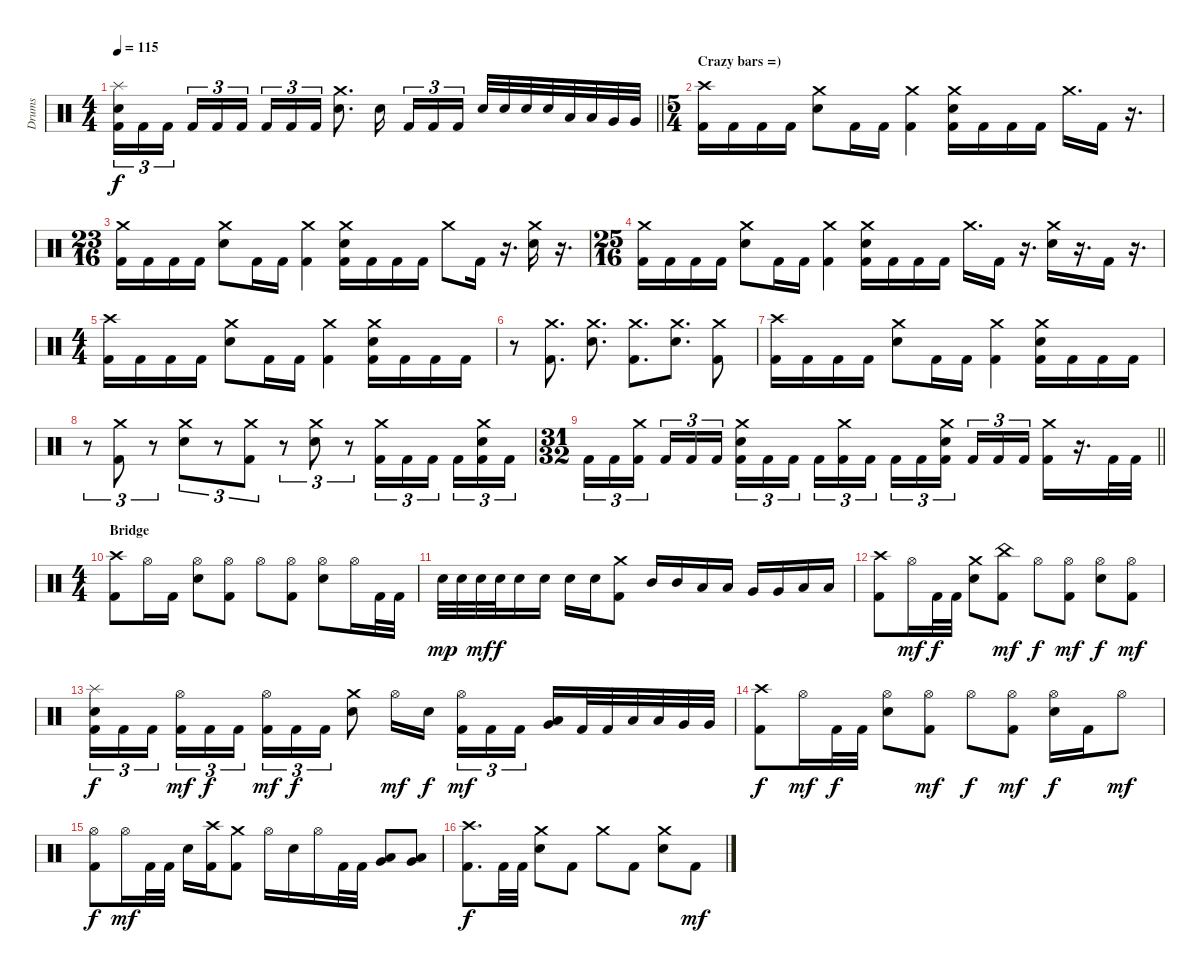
\track ("Drums" "Drums") {instrument percussion}
\staff {score}
\articulation defaults
\ts (4 4)
\tempo 115
\clef neutral
\barLineRight lightlight
\ks c
("Splash (hit)" "Electric Snare (hit)" "Kick (hit) 2").16{tu (3 2) dy f} "Kick (hit) 2".16{tu (3 2)} "Kick (hit) 2".16{tu (3 2) beam splitsecondary} "Kick (hit) 2".16{tu (3 2)} "Kick (hit) 2".16{tu (3 2)} "Kick (hit) 2".16{tu (3 2)} "Kick (hit) 2".16{tu (3 2)} "Kick (hit) 2".16{tu (3 2)} "Kick (hit) 2".16{tu (3 2)} ("Crash medium (hit)" "Electric Snare (hit)").8{d} "Electric Snare (hit)".16{beam splitsecondary} "Kick (hit) 2".16{tu (3 2)} "Kick (hit) 2".16{tu (3 2)} "Kick (hit) 2".16{tu (3 2)} "Electric Snare (hit)".32 "Electric Snare (hit)".32 "Electric Snare (hit)".32 "Electric Snare (hit)".32 "Low Tom (hit)".32 "Low Tom (hit)".32 "Very Low Tom (hit)".32 "Very Low Tom (hit)".32 |
\ts (5 4)
\section ("" "Crazy bars =)")
("Crash high (hit)" "Kick (hit) 2").16 "Kick (hit) 2".16 "Kick (hit) 2".16 "Kick (hit) 2".16 ("Crash medium (hit)" "Electric Snare (hit)").8 "Kick (hit) 2".16 "Kick (hit) 2".16 ("Crash medium (hit)" "Kick (hit) 2").4 ("Crash medium (hit)" "Electric Snare (hit)" "Kick (hit) 2").16 "Kick (hit) 2".16 "Kick (hit) 2".16 "Kick (hit) 2".16 "Crash medium (hit)".16{d} "Kick (hit) 2".16 r.16{d} |
\ts (23 16)
("Crash medium (hit)" "Kick (hit) 2").16 "Kick (hit) 2".16 "Kick (hit) 2".16 "Kick (hit) 2".16 ("Crash medium (hit)" "Electric Snare (hit)").8 "Kick (hit) 2".16 "Kick (hit) 2".16 ("Crash medium (hit)" "Kick (hit) 2").4 ("Crash medium (hit)" "Electric Snare (hit)" "Kick (hit) 2").16 "Kick (hit) 2".16 "Kick (hit) 2".16 "Kick (hit) 2".16 "Crash medium (hit)".8 "Kick (hit) 2".16 r.16{d} ("Crash medium (hit)" "Electric Snare (hit)").16 r.16{d} |
\ts (25 16)
("Crash medium (hit)" "Kick (hit) 2").16 "Kick (hit) 2".16 "Kick (hit) 2".16 "Kick (hit) 2".16 ("Crash medium (hit)" "Electric Snare (hit)").8 "Kick (hit) 2".16 "Kick (hit) 2".16 ("Crash medium (hit)" "Kick (hit) 2").4 ("Crash medium (hit)" "Electric Snare (hit)" "Kick (hit) 2").16 "Kick (hit) 2".16 "Kick (hit) 2".16 "Kick (hit) 2".16 "Crash medium (hit)".16{d} "Kick (hit) 2".16 r.16{d} ("Crash medium (hit)" "Electric Snare (hit)").16 r.16{d} "Kick (hit) 2".16 r.16{d} |
\ts (4 4)
("Crash high (hit)" "Kick (hit) 2").16 "Kick (hit) 2".16 "Kick (hit) 2".16 "Kick (hit) 2".16 ("Crash medium (hit)" "Electric Snare (hit)").8 "Kick (hit) 2".16 "Kick (hit) 2".16 ("Crash medium (hit)" "Kick (hit) 2").4 ("Crash medium (hit)" "Electric Snare (hit)" "Kick (hit) 2").16 "Kick (hit) 2".16 "Kick (hit) 2".16 "Kick (hit) 2".16 |
r.8 ("Crash medium (hit)" "Kick (hit) 2").8{d} ("Crash medium (hit)" "Electric Snare (hit)").8{d} ("Crash medium (hit)" "Kick (hit) 2").8{d} ("Crash medium (hit)" "Electric Snare (hit)").8{d} ("Crash medium (hit)" "Kick (hit) 2").8 |
("Crash high (hit)" "Kick (hit) 2").16 "Kick (hit) 2".16 "Kick (hit) 2".16 "Kick (hit) 2".16 ("Crash medium (hit)" "Electric Snare (hit)").8 "Kick (hit) 2".16 "Kick (hit) 2".16 ("Crash medium (hit)" "Kick (hit) 2").4 ("Crash medium (hit)" "Electric Snare (hit)" "Kick (hit) 2").16 "Kick (hit) 2".16 "Kick (hit) 2".16 "Kick (hit) 2".16 |
r.8{tu (3 2)} ("Crash medium (hit)" "Kick (hit) 2").8{tu (3 2)} r.8{tu (3 2)} ("Crash medium (hit)" "Electric Snare (hit)").8{tu (3 2)} r.8{tu (3 2)} ("Crash medium (hit)" "Kick (hit) 2").8{tu (3 2)} r.8{tu (3 2)} ("Crash medium (hit)" "Electric Snare (hit)").8{tu (3 2)} r.8{tu (3 2)} ("Crash medium (hit)" "Kick (hit) 2").16{tu (3 2)} "Kick (hit) 2".16{tu (3 2)} "Kick (hit) 2".16{tu (3 2) beam splitsecondary} "Kick (hit) 2".16{tu (3 2)} ("Crash medium (hit)" "Electric Snare (hit)" "Kick (hit) 2").16{tu (3 2)} "Kick (hit) 2".16{tu (3 2)} |
\ts (31 32)
\barLineRight lightlight "Kick (hit) 2".16{tu (3 2)} "Kick (hit) 2".16{tu (3 2)}
("Crash medium (hit)" "Kick (hit) 2").16{tu (3 2)} "Kick (hit) 2".16{tu (3 2)} "Kick (hit) 2".16{tu (3 2)} "Kick (hit) 2".16{tu (3 2)} ("Crash medium (hit)" "Electric Snare (hit)" "Kick (hit) 2").16{tu (3 2)} "Kick (hit) 2".16{tu (3 2)} "Kick (hit) 2".16{tu (3 2)} "Kick (hit) 2".16{tu (3 2)} ("Crash medium (hit)" "Kick (hit) 2").16{tu (3 2)} "Kick (hit) 2".16{tu (3 2)} "Kick (hit) 2".16{tu (3 2)} "Kick (hit) 2".16{tu (3 2)} ("Crash medium (hit)" "Electric Snare (hit)" "Kick (hit) 2").16{tu (3 2)} "Kick (hit) 2".16{tu (3 2)} "Kick (hit) 2".16{tu (3 2)} "Kick (hit) 2".16{tu (3 2)} ("Crash medium (hit)" "Kick (hit) 2").16 r.16{d} "Kick (hit) 2".32 "Kick (hit) 2".32 |
\ts (4 4)
\section ("" "Bridge")
("Crash high (hit)" "Kick (hit) 2").8 "Hi-Hat (open)".16 "Kick (hit) 2".16 ("Hi-Hat (open)" "Electric Snare (hit)").8 ("Hi-Hat (open)" "Kick (hit) 2").8 "Hi-Hat (open)".8 ("Hi-Hat (open)" "Kick (hit) 2").8 ("Hi-Hat (open)" "Electric Snare (hit)").8 "Hi-Hat (open)".16 "Kick (hit) 2".32 "Kick (hit) 2".32 |
"Electric Snare (hit)".32{dy mp} "Electric Snare (hit)".32 "Electric Snare (hit)".32{dy mf} "Electric Snare (hit)".32{dy f} "Electric Snare (hit)".16 "Electric Snare (hit)".16 "Electric Snare (hit)".16 "Electric Snare (hit)".16 ("Crash medium (hit)" "Kick (hit) 2").8 "Mid Tom (hit)".16 "Mid Tom (hit)".16 "Low Tom (hit)".16 "Low Tom (hit)".16 "Very Low Tom (hit)".16 "Very Low Tom (hit)".16 "Low Floor Tom (hit)".16 "Low Floor Tom (hit)".16 |
("Crash high (hit)" "Kick (hit) 2").8 "Hi-Hat (open)".16{dy mf} "Kick (hit) 2".32{dy f} "Kick (hit) 2".32 ("Crash medium (hit)" "Electric Snare (hit)").8 ("China (hit)" "Kick (hit) 2").8{dy mf} "Hi-Hat (open)".8{dy f} ("Hi-Hat (open)" "Kick (hit) 2").8{dy mf} ("Hi-Hat (open)" "Electric Snare (hit)").8{dy f} ("Hi-Hat (open)" "Kick (hit) 2").8{dy mf} |
("Splash (hit)" "Electric Snare (hit)" "Kick (hit) 2").16{tu (3 2) dy f} "Kick (hit) 2".16{tu (3 2)} "Kick (hit) 2".16{tu (3 2) beam splitsecondary} ("Hi-Hat (open)" "Kick (hit) 2").16{tu (3 2) dy mf} "Kick (hit) 2".16{tu (3 2) dy f} "Kick (hit) 2".16{tu (3 2)} ("Hi-Hat (open)" "Kick (hit) 2").16{tu (3 2) dy mf} "Kick (hit) 2".16{tu (3 2) dy f} "Kick (hit) 2".16{tu (3 2)} ("Crash medium (hit)" "Electric Snare (hit)").8 "Hi-Hat (open)".16{dy mf} "Electric Snare (hit)".16{dy f beam splitsecondary} ("Hi-Hat (open)" "Kick (hit) 2").16{tu (3 2) dy mf} "Kick (hit) 2".16{tu (3 2)} "Kick (hit) 2".16{tu (3 2)} ("Low Tom (hit)" "Very Low Tom (hit)").16 "Kick (hit) 2".32 "Kick (hit) 2".32 "Low Tom (hit)".32 "Low Tom (hit)".32 "Very Low Tom (hit)".32 "Very Low Tom (hit)".32 |
("Crash high (hit)" "Kick (hit) 2").8{dy f} "Hi-Hat (open)".16{dy mf} "Kick (hit) 2".32{dy f} "Kick (hit) 2".32 ("Hi-Hat (open)" "Electric Snare (hit)").8 ("Hi-Hat (open)" "Kick (hit) 2").8{dy mf} "Hi-Hat (open)".8{dy f} ("Hi-Hat (open)" "Kick (hit) 2").8{dy mf} ("Hi-Hat (open)" "Electric Snare (hit)").16{dy f} "Kick (hit) 2".16 "Hi-Hat (open)".8{dy mf} |
("Hi-Hat (open)" "Kick (hit) 2").8{dy f} "Hi-Hat (open)".16{dy mf} "Kick (hit) 2".32 "Kick (hit) 2".32 "Electric Snare (hit)".16 ("Crash high (hit)" "Kick (hit) 2").16 ("Crash medium (hit)" "Kick (hit) 2").8 "Hi-Hat (open)".16 "Electric Snare (hit)".16 "Hi-Hat (open)".16 "Kick (hit) 2".32 "Kick (hit) 2".32 ("Low Tom (hit)" "Very Low Tom (hit)").8 ("Very Low Tom (hit)" "Low Floor Tom (hit)").8 |
("Crash high (hit)" "Kick (hit) 2").8{d dy f} "Kick (hit) 2".32 "Kick (hit) 2".32 ("Crash medium (hit)" "Electric Snare (hit)").8 "Kick (hit) 2".8 "Crash medium (hit)".8 "Kick (hit) 2".8 ("Crash medium (hit)" "Electric Snare (hit)").8 "Kick (hit) 2".8{dy mf}
